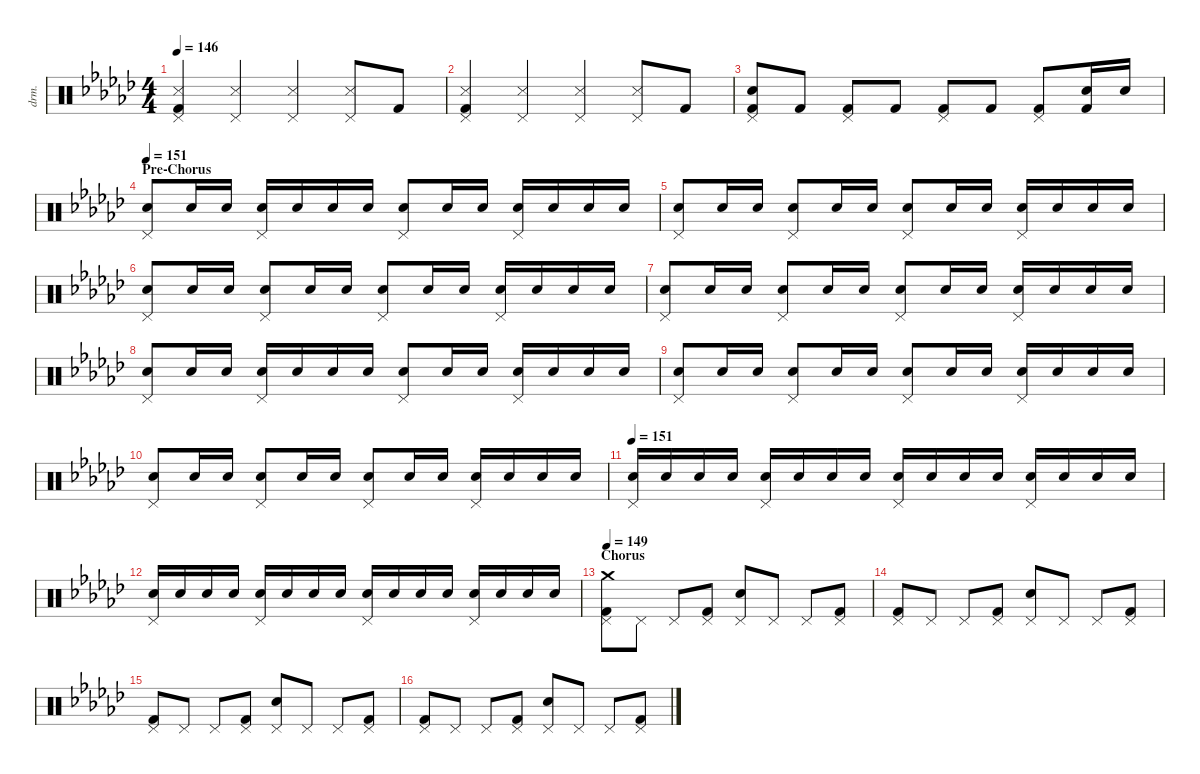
\defaultSystemsLayout 4
\hideDynamics
\bracketExtendMode nobrackets
\otherSystemsTrackNameOrientation horizontal
\track ("Drums" "drm.") {defaultSystemsLayout 4 instrument percussion}
\staff {score}
\articulation defaults
\ts (4 4)
\tempo 146
\clef neutral
\ks gb
("Pedal Hi-Hat (hit)"{acc forcenatural} "Kick (hit) 2"{acc forcenatural} "Snare (side stick) 3"{acc forcenatural}).4{dy f beam Up} ("Pedal Hi-Hat (hit)"{acc forcenatural} "Snare (side stick) 3"{acc forcenatural}).4{beam Up} ("Pedal Hi-Hat (hit)"{acc forcenatural} "Snare (side stick) 3"{acc forcenatural}).4{beam Up} ("Pedal Hi-Hat (hit)"{acc forcenatural} "Snare (side stick) 3"{acc forcenatural}).8{beam Up} "Kick (hit) 2"{acc forcenatural}.8{beam Up} |
("Pedal Hi-Hat (hit)"{acc forcenatural} "Kick (hit) 2"{acc forcenatural} "Snare (side stick) 3"{acc forcenatural}).4{beam Up} ("Pedal Hi-Hat (hit)"{acc forcenatural} "Snare (side stick) 3"{acc forcenatural}).4{beam Up} ("Pedal Hi-Hat (hit)"{acc forcenatural} "Snare (side stick) 3"{acc forcenatural}).4{beam Up} ("Pedal Hi-Hat (hit)"{acc forcenatural} "Snare (side stick) 3"{acc forcenatural}).8{beam Up} "Kick (hit) 2"{acc forcenatural}.8{beam Up} |
("Pedal Hi-Hat (hit)"{acc forcenatural} "Kick (hit) 2"{acc forcenatural} "Snare (hit) 2"{acc forcenatural}).8{beam Up} "Kick (hit) 2"{acc forcenatural}.8{dy mf beam Up} ("Pedal Hi-Hat (hit)"{acc forcenatural} "Kick (hit) 2"{acc forcenatural}).8{dy f beam Up} "Kick (hit) 2"{acc forcenatural}.8{beam Up} ("Pedal Hi-Hat (hit)"{acc forcenatural} "Kick (hit) 2"{acc forcenatural}).8{beam Up} "Kick (hit) 2"{acc forcenatural}.8{dy ff beam Up} ("Pedal Hi-Hat (hit)"{acc forcenatural} "Kick (hit) 2"{acc forcenatural}).8{dy f beam Up} ("Kick (hit) 2"{acc forcenatural} "Snare (hit) 2"{acc forcenatural}).16{dy fff beam Up} "Snare (hit) 2"{acc forcenatural}.16{dy mf beam Up} |
\section ("" "Pre-Chorus")
\tempo 151
("Pedal Hi-Hat (hit)"{acc forcenatural} "Snare (hit) 2"{acc forcenatural}).8{dy f beam Up} "Snare (hit) 2"{acc forcenatural}.16{dy mf beam Up} "Snare (hit) 2"{acc forcenatural}.16{beam Up} ("Pedal Hi-Hat (hit)"{acc forcenatural} "Snare (hit) 2"{acc forcenatural}).16{dy f beam Up} "Snare (hit) 2"{acc forcenatural}.16{dy mf beam Up} "Snare (hit) 2"{acc forcenatural}.16{beam Up} "Snare (hit) 2"{acc forcenatural}.16{beam Up} ("Pedal Hi-Hat (hit)"{acc forcenatural} "Snare (hit) 2"{acc forcenatural}).8{dy f beam Up} "Snare (hit) 2"{acc forcenatural}.16{dy mf beam Up} "Snare (hit) 2"{acc forcenatural}.16{beam Up} ("Pedal Hi-Hat (hit)"{acc forcenatural} "Snare (hit) 2"{acc forcenatural}).16{dy f beam Up} "Snare (hit) 2"{acc forcenatural}.16{dy mf beam Up} "Snare (hit) 2"{acc forcenatural}.16{beam Up} "Snare (hit) 2"{acc forcenatural}.16{beam Up} |
("Pedal Hi-Hat (hit)"{acc forcenatural} "Snare (hit) 2"{acc forcenatural}).8{dy f beam Up} "Snare (hit) 2"{acc forcenatural}.16{dy mf beam Up} "Snare (hit) 2"{acc forcenatural}.16{beam Up} ("Pedal Hi-Hat (hit)"{acc forcenatural} "Snare (hit) 2"{acc forcenatural}).8{dy f beam Up} "Snare (hit) 2"{acc forcenatural}.16{dy mf beam Up} "Snare (hit) 2"{acc forcenatural}.16{beam Up} ("Pedal Hi-Hat (hit)"{acc forcenatural} "Snare (hit) 2"{acc forcenatural}).8{dy f beam Up} "Snare (hit) 2"{acc forcenatural}.16{dy mf beam Up} "Snare (hit) 2"{acc forcenatural}.16{beam Up} ("Pedal Hi-Hat (hit)"{acc forcenatural} "Snare (hit) 2"{acc forcenatural}).16{dy f beam Up} "Snare (hit) 2"{acc forcenatural}.16{dy mf beam Up} "Snare (hit) 2"{acc forcenatural}.16{beam Up} "Snare (hit) 2"{acc forcenatural}.16{beam Up} |
("Pedal Hi-Hat (hit)"{acc forcenatural} "Snare (hit) 2"{acc forcenatural}).8{dy f beam Up} "Snare (hit) 2"{acc forcenatural}.16{dy mf beam Up} "Snare (hit) 2"{acc forcenatural}.16{beam Up} ("Pedal Hi-Hat (hit)"{acc forcenatural} "Snare (hit) 2"{acc forcenatural}).8{dy f beam Up} "Snare (hit) 2"{acc forcenatural}.16{dy mf beam Up} "Snare (hit) 2"{acc forcenatural}.16{beam Up} ("Pedal Hi-Hat (hit)"{acc forcenatural} "Snare (hit) 2"{acc forcenatural}).8{dy f beam Up} "Snare (hit) 2"{acc forcenatural}.16{dy mf beam Up} "Snare (hit) 2"{acc forcenatural}.16{beam Up} ("Pedal Hi-Hat (hit)"{acc forcenatural} "Snare (hit) 2"{acc forcenatural}).16{dy f beam Up} "Snare (hit) 2"{acc forcenatural}.16{dy mf beam Up} "Snare (hit) 2"{acc forcenatural}.16{beam Up} "Snare (hit) 2"{acc forcenatural}.16{beam Up} |
("Pedal Hi-Hat (hit)"{acc forcenatural} "Snare (hit) 2"{acc forcenatural}).8{dy f beam Up} "Snare (hit) 2"{acc forcenatural}.16{dy mf beam Up} "Snare (hit) 2"{acc forcenatural}.16{beam Up} ("Pedal Hi-Hat (hit)"{acc forcenatural} "Snare (hit) 2"{acc forcenatural}).8{dy f beam Up} "Snare (hit) 2"{acc forcenatural}.16{dy mf beam Up} "Snare (hit) 2"{acc forcenatural}.16{beam Up} ("Pedal Hi-Hat (hit)"{acc forcenatural} "Snare (hit) 2"{acc forcenatural}).8{dy f beam Up} "Snare (hit) 2"{acc forcenatural}.16{dy mf beam Up} "Snare (hit) 2"{acc forcenatural}.16{beam Up} ("Pedal Hi-Hat (hit)"{acc forcenatural} "Snare (hit) 2"{acc forcenatural}).16{dy f beam Up} "Snare (hit) 2"{acc forcenatural}.16{dy mf beam Up} "Snare (hit) 2"{acc forcenatural}.16{beam Up} "Snare (hit) 2"{acc forcenatural}.16{beam Up} |
("Pedal Hi-Hat (hit)"{acc forcenatural} "Snare (hit) 2"{acc forcenatural}).8{dy f beam Up} "Snare (hit) 2"{acc forcenatural}.16{dy mf beam Up} "Snare (hit) 2"{acc forcenatural}.16{beam Up} ("Pedal Hi-Hat (hit)"{acc forcenatural} "Snare (hit) 2"{acc forcenatural}).16{dy f beam Up} "Snare (hit) 2"{acc forcenatural}.16{dy mf beam Up} "Snare (hit) 2"{acc forcenatural}.16{beam Up} "Snare (hit) 2"{acc forcenatural}.16{beam Up} ("Pedal Hi-Hat (hit)"{acc forcenatural} "Snare (hit) 2"{acc forcenatural}).8{dy f beam Up} "Snare (hit) 2"{acc forcenatural}.16{dy mf beam Up} "Snare (hit) 2"{acc forcenatural}.16{beam Up} ("Pedal Hi-Hat (hit)"{acc forcenatural} "Snare (hit) 2"{acc forcenatural}).16{dy f beam Up} "Snare (hit) 2"{acc forcenatural}.16{dy mf beam Up} "Snare (hit) 2"{acc forcenatural}.16{beam Up} "Snare (hit) 2"{acc forcenatural}.16{beam Up} |
("Pedal Hi-Hat (hit)"{acc forcenatural} "Snare (hit) 2"{acc forcenatural}).8{dy f beam Up} "Snare (hit) 2"{acc forcenatural}.16{dy mf beam Up} "Snare (hit) 2"{acc forcenatural}.16{beam Up} ("Pedal Hi-Hat (hit)"{acc forcenatural} "Snare (hit) 2"{acc forcenatural}).8{dy f beam Up} "Snare (hit) 2"{acc forcenatural}.16{dy mf beam Up} "Snare (hit) 2"{acc forcenatural}.16{beam Up} ("Pedal Hi-Hat (hit)"{acc forcenatural} "Snare (hit) 2"{acc forcenatural}).8{dy f beam Up} "Snare (hit) 2"{acc forcenatural}.16{dy mf beam Up} "Snare (hit) 2"{acc forcenatural}.16{beam Up} ("Pedal Hi-Hat (hit)"{acc forcenatural} "Snare (hit) 2"{acc forcenatural}).16{dy f beam Up} "Snare (hit) 2"{acc forcenatural}.16{dy mf beam Up} "Snare (hit) 2"{acc forcenatural}.16{beam Up} "Snare (hit) 2"{acc forcenatural}.16{beam Up} |
("Pedal Hi-Hat (hit)"{acc forcenatural} "Snare (hit) 2"{acc forcenatural}).8{dy f beam Up} "Snare (hit) 2"{acc forcenatural}.16{dy mf beam Up} "Snare (hit) 2"{acc forcenatural}.16{beam Up} ("Pedal Hi-Hat (hit)"{acc forcenatural} "Snare (hit) 2"{acc forcenatural}).8{dy f beam Up} "Snare (hit) 2"{acc forcenatural}.16{dy mf beam Up} "Snare (hit) 2"{acc forcenatural}.16{beam Up} ("Pedal Hi-Hat (hit)"{acc forcenatural} "Snare (hit) 2"{acc forcenatural}).8{dy f beam Up} "Snare (hit) 2"{acc forcenatural}.16{dy mf beam Up} "Snare (hit) 2"{acc forcenatural}.16{beam Up} ("Pedal Hi-Hat (hit)"{acc forcenatural} "Snare (hit) 2"{acc forcenatural}).16{dy f beam Up} "Snare (hit) 2"{acc forcenatural}.16{dy mf beam Up} "Snare (hit) 2"{acc forcenatural}.16{beam Up} "Snare (hit) 2"{acc forcenatural}.16{beam Up} |
\tempo 151
("Pedal Hi-Hat (hit)"{acc forcenatural} "Snare (hit) 2"{acc forcenatural}).16{dy f beam Up} "Snare (hit) 2"{acc forcenatural}.16{dy mp beam Up} "Snare (hit) 2"{acc forcenatural}.16{beam Up} "Snare (hit) 2"{acc forcenatural}.16{beam Up} ("Pedal Hi-Hat (hit)"{acc forcenatural} "Snare (hit) 2"{acc forcenatural}).16{dy f beam Up} "Snare (hit) 2"{acc forcenatural}.16{dy mp beam Up} "Snare (hit) 2"{acc forcenatural}.16{beam Up} "Snare (hit) 2"{acc forcenatural}.16{beam Up} ("Pedal Hi-Hat (hit)"{acc forcenatural} "Snare (hit) 2"{acc forcenatural}).16{dy f beam Up} "Snare (hit) 2"{acc forcenatural}.16{dy mp beam Up} "Snare (hit) 2"{acc forcenatural}.16{beam Up} "Snare (hit) 2"{acc forcenatural}.16{beam Up} ("Pedal Hi-Hat (hit)"{acc forcenatural} "Snare (hit) 2"{acc forcenatural}).16{dy f beam Up} "Snare (hit) 2"{acc forcenatural}.16{dy mp beam Up} "Snare (hit) 2"{acc forcenatural}.16{beam Up} "Snare (hit) 2"{acc forcenatural}.16{beam Up} |
("Pedal Hi-Hat (hit)"{acc forcenatural} "Snare (hit) 2"{acc forcenatural}).16{dy f beam Up} "Snare (hit) 2"{acc forcenatural}.16{dy fff beam Up} "Snare (hit) 2"{acc forcenatural}.16{dy mp beam Up} "Snare (hit) 2"{acc forcenatural}.16{beam Up} ("Pedal Hi-Hat (hit)"{acc forcenatural} "Snare (hit) 2"{acc forcenatural}).16{dy f beam Up} "Snare (hit) 2"{acc forcenatural}.16{dy mf beam Up} "Snare (hit) 2"{acc forcenatural}.16{beam Up} "Snare (hit) 2"{acc forcenatural}.16{beam Up} ("Pedal Hi-Hat (hit)"{acc forcenatural} "Snare (hit) 2"{acc forcenatural}).16{dy f beam Up} "Snare (hit) 2"{acc forcenatural}.16{beam Up} "Snare (hit) 2"{acc forcenatural}.16{beam Up} "Snare (hit) 2"{acc forcenatural}.16{beam Up} ("Pedal Hi-Hat (hit)"{acc forcenatural} "Snare (hit) 2"{acc forcenatural}).16{beam Up} "Snare (hit) 2"{acc forcenatural}.16{dy ff beam Up} "Snare (hit) 2"{acc forcenatural}.16{beam Up} "Snare (hit) 2"{acc forcenatural}.16{dy fff beam Up} |
\section ("" "Chorus")
\tempo 149
("Pedal Hi-Hat (hit)"{acc forcenatural} "Kick (hit) 2"{acc forcenatural} "Crash medium (hit)"{acc forcenatural}).8{dy f beam Down} "Pedal Hi-Hat (hit)"{acc forcenatural}.8{dy mp beam Down} "Pedal Hi-Hat (hit)"{acc forcenatural}.8{dy f beam Up} ("Pedal Hi-Hat (hit)"{acc forcenatural} "Kick (hit) 2"{acc forcenatural}).8{dy mp beam Up} ("Pedal Hi-Hat (hit)"{acc forcenatural} "Snare (hit) 2"{acc forcenatural}).8{dy f beam Up} "Pedal Hi-Hat (hit)"{acc forcenatural}.8{dy mp beam Up} "Pedal Hi-Hat (hit)"{acc forcenatural}.8{dy f beam Up} ("Pedal Hi-Hat (hit)"{acc forcenatural} "Kick (hit) 2"{acc forcenatural}).8{dy mp beam Up} |
("Pedal Hi-Hat (hit)"{acc forcenatural} "Kick (hit) 2"{acc forcenatural}).8{dy f beam Up} "Pedal Hi-Hat (hit)"{acc forcenatural}.8{dy mp beam Up} "Pedal Hi-Hat (hit)"{acc forcenatural}.8{dy f beam Up} ("Pedal Hi-Hat (hit)"{acc forcenatural} "Kick (hit) 2"{acc forcenatural}).8{dy mp beam Up} ("Pedal Hi-Hat (hit)"{acc forcenatural} "Snare (hit) 2"{acc forcenatural}).8{dy f beam Up} "Pedal Hi-Hat (hit)"{acc forcenatural}.8{dy mp beam Up} "Pedal Hi-Hat (hit)"{acc forcenatural}.8{dy f beam Up} ("Pedal Hi-Hat (hit)"{acc forcenatural} "Kick (hit) 2"{acc forcenatural}).8{dy mp beam Up} |
("Pedal Hi-Hat (hit)"{acc forcenatural} "Kick (hit) 2"{acc forcenatural}).8{dy f beam Up} "Pedal Hi-Hat (hit)"{acc forcenatural}.8{dy mp beam Up} "Pedal Hi-Hat (hit)"{acc forcenatural}.8{dy f beam Up} ("Pedal Hi-Hat (hit)"{acc forcenatural} "Kick (hit) 2"{acc forcenatural}).8{dy mp beam Up} ("Pedal Hi-Hat (hit)"{acc forcenatural} "Snare (hit) 2"{acc forcenatural}).8{dy f beam Up} "Pedal Hi-Hat (hit)"{acc forcenatural}.8{dy mp beam Up} "Pedal Hi-Hat (hit)"{acc forcenatural}.8{dy f beam Up} ("Pedal Hi-Hat (hit)"{acc forcenatural} "Kick (hit) 2"{acc forcenatural}).8{dy mp beam Up} |
("Pedal Hi-Hat (hit)"{acc forcenatural} "Kick (hit) 2"{acc forcenatural}).8{dy f beam Up} "Pedal Hi-Hat (hit)"{acc forcenatural}.8{dy mp beam Up} "Pedal Hi-Hat (hit)"{acc forcenatural}.8{dy f beam Up} ("Pedal Hi-Hat (hit)"{acc forcenatural} "Kick (hit) 2"{acc forcenatural}).8{dy mp beam Up} ("Pedal Hi-Hat (hit)"{acc forcenatural} "Snare (hit) 2"{acc forcenatural}).8{dy f beam Up} "Pedal Hi-Hat (hit)"{acc forcenatural}.8{dy mp beam Up} "Pedal Hi-Hat (hit)"{acc forcenatural}.8{dy f beam Up} ("Pedal Hi-Hat (hit)"{acc forcenatural} "Kick (hit) 2"{acc forcenatural}).8{dy mp beam Up}
